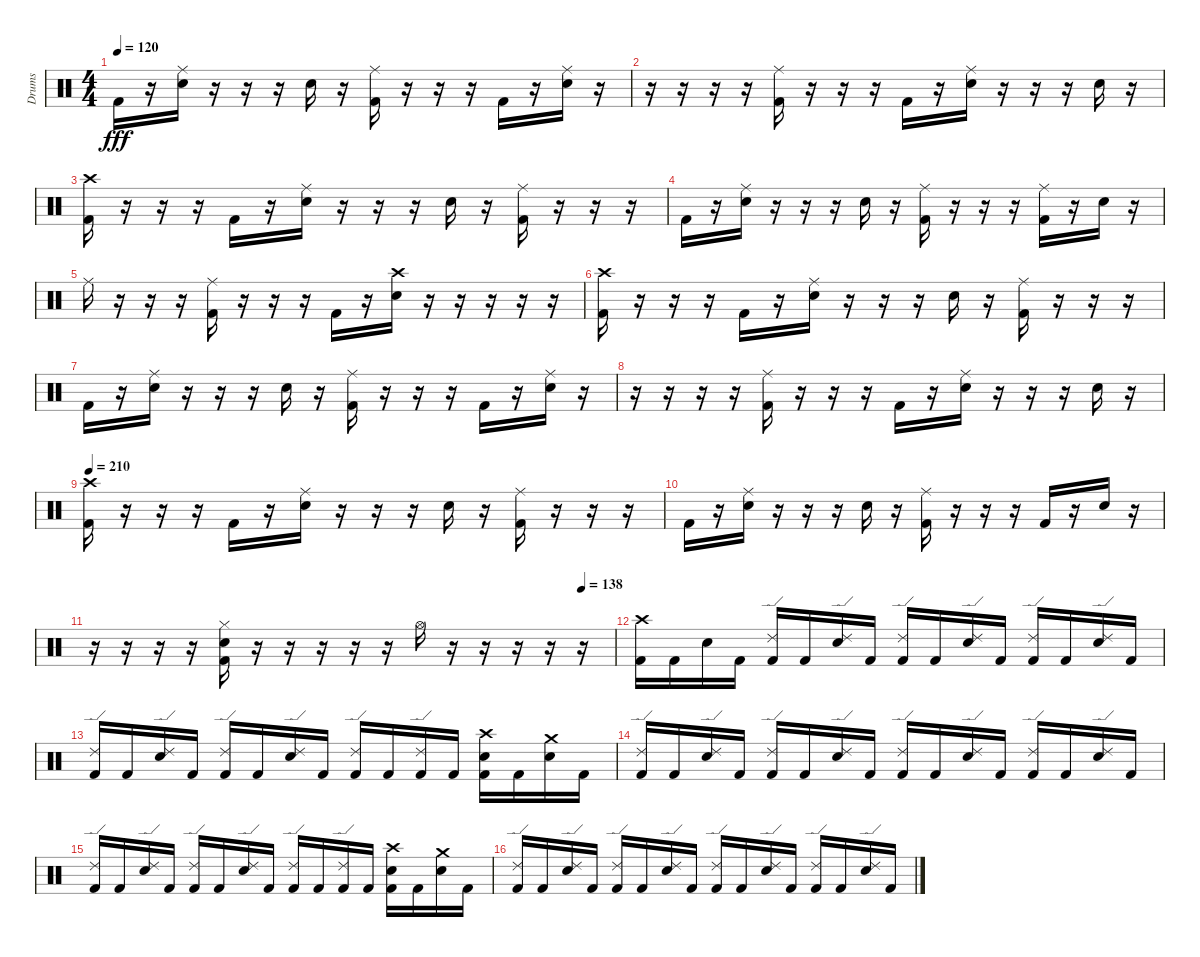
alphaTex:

\track ("Drums" "Drums") {instrument percussion}
\staff {score}
\articulation defaults
\ts (4 4)
\tempo 120
\clef neutral
\ks c "Kick (hit) 2".16{dy fff}
r.16 ("Ride (middle)" "Snare (hit) 2").16 r.16 r.16 r.16 "Snare (hit) 2".16 r.16 ("Ride (middle)" "Kick (hit) 2").16 r.16 r.16 r.16 "Kick (hit) 2".16 r.16 ("Ride (middle)" "Snare (hit) 2").16 r.16 |
r.16 r.16 r.16 r.16 ("Ride (middle)" "Kick (hit) 2").16 r.16 r.16 r.16 "Kick (hit) 2".16 r.16 ("Ride (middle)" "Snare (hit) 2").16 r.16 r.16 r.16 "Snare (hit) 2".16 r.16 |
("Crash high (hit)" "Kick (hit) 2").16 r.16 r.16 r.16 "Kick (hit) 2".16 r.16 ("Ride (middle)" "Snare (hit) 2").16 r.16 r.16 r.16 "Snare (hit) 2".16 r.16 ("Ride (middle)" "Kick (hit) 2").16 r.16 r.16 r.16 |
"Kick (hit) 2".16 r.16 ("Ride (middle)" "Snare (hit) 2").16 r.16 r.16 r.16 "Snare (hit) 2".16 r.16 ("Ride (middle)" "Kick (hit) 2").16 r.16 r.16 r.16 ("Ride (middle)" "Kick (hit) 2").16 r.16 "Snare (hit) 2".16 r.16 |
"Ride (middle)".16 r.16 r.16 r.16 ("Ride (middle)" "Kick (hit) 2").16 r.16 r.16 r.16 "Kick (hit) 2".16 r.16 ("Crash high (hit)" "Snare (hit) 2").16 r.16 r.16 r.16 r.16 r.16 |
("Crash high (hit)" "Kick (hit) 2").16 r.16 r.16 r.16 "Kick (hit) 2".16 r.16 ("Ride (middle)" "Snare (hit) 2").16 r.16 r.16 r.16 "Snare (hit) 2".16 r.16 ("Ride (middle)" "Kick (hit) 2").16 r.16 r.16 r.16 |
"Kick (hit) 2".16 r.16 ("Ride (middle)" "Snare (hit) 2").16 r.16 r.16 r.16 "Snare (hit) 2".16 r.16 ("Ride (middle)" "Kick (hit) 2").16 r.16 r.16 r.16 "Kick (hit) 2".16 r.16 ("Ride (middle)" "Snare (hit) 2").16 r.16 |
r.16 r.16 r.16 r.16 ("Ride (middle)" "Kick (hit) 2").16 r.16 r.16 r.16 "Kick (hit) 2".16 r.16 ("Ride (middle)" "Snare (hit) 2").16 r.16 r.16 r.16 "Snare (hit) 2".16 r.16 |
\tempo 210
("Crash high (hit)" "Kick (hit) 2").16 r.16 r.16 r.16 "Kick (hit) 2".16 r.16 ("Ride (middle)" "Snare (hit) 2").16 r.16 r.16 r.16 "Snare (hit) 2".16 r.16 ("Ride (middle)" "Kick (hit) 2").16 r.16 r.16 r.16 |
"Kick (hit) 2".16 r.16 ("Ride (middle)" "Snare (hit) 2").16 r.16 r.16 r.16 "Snare (hit) 2".16 r.16 ("Ride (middle)" "Kick (hit) 2").16 r.16 r.16 r.16 "Kick (hit) 2".16 r.16 "Snare (hit) 2".16 r.16 |
\tempo (138 0.9375)
r.16 r.16 r.16 r.16 ("Hi-Hat (closed)" "Snare (hit) 2" "Kick (hit) 2").16 r.16 r.16 r.16 r.16 r.16 "Hi-Hat (open)".16 r.16 r.16 r.16 r.16 r.16 |
("Crash high (hit)" "Kick (hit) 2").16 "Kick (hit) 2".16 "Snare (hit) 2".16 "Kick (hit) 2".16 ("Ride (edge) 2" "Kick (hit) 2").16 "Kick (hit) 2".16 ("Ride (edge) 2" "Snare (hit) 2").16 "Kick (hit) 2".16 ("Ride (edge) 2" "Kick (hit) 2").16 "Kick (hit) 2".16 ("Ride (edge) 2" "Snare (hit) 2").16 "Kick (hit) 2".16 ("Ride (edge) 2" "Kick (hit) 2").16 "Kick (hit) 2".16 ("Ride (edge) 2" "Snare (hit) 2").16 "Kick (hit) 2".16 |
("Ride (edge) 2" "Kick (hit) 2").16 "Kick (hit) 2".16 ("Ride (edge) 2" "Snare (hit) 2").16 "Kick (hit) 2".16 ("Ride (edge) 2" "Kick (hit) 2").16 "Kick (hit) 2".16 ("Ride (edge) 2" "Snare (hit) 2").16 "Kick (hit) 2".16 ("Ride (edge) 2" "Kick (hit) 2").16 "Kick (hit) 2".16 ("Ride (edge) 2" "Kick (hit) 2").16 "Kick (hit) 2".16 ("Crash high (hit)" "Snare (hit) 2" "Kick (hit) 2").16 "Kick (hit) 2".16 ("Crash medium (hit)" "Snare (hit) 2").16 "Kick (hit) 2".16 |
("Ride (edge) 2" "Kick (hit) 2").16 "Kick (hit) 2".16 ("Ride (edge) 2" "Snare (hit) 2").16 "Kick (hit) 2".16 ("Ride (edge) 2" "Kick (hit) 2").16 "Kick (hit) 2".16 ("Ride (edge) 2" "Snare (hit) 2").16 "Kick (hit) 2".16 ("Ride (edge) 2" "Kick (hit) 2").16 "Kick (hit) 2".16 ("Ride (edge) 2" "Snare (hit) 2").16 "Kick (hit) 2".16 ("Ride (edge) 2" "Kick (hit) 2").16 "Kick (hit) 2".16 ("Ride (edge) 2" "Snare (hit) 2").16 "Kick (hit) 2".16 |
("Ride (edge) 2" "Kick (hit) 2").16 "Kick (hit) 2".16 ("Ride (edge) 2" "Snare (hit) 2").16 "Kick (hit) 2".16 ("Ride (edge) 2" "Kick (hit) 2").16 "Kick (hit) 2".16 ("Ride (edge) 2" "Snare (hit) 2").16 "Kick (hit) 2".16 ("Ride (edge) 2" "Kick (hit) 2").16 "Kick (hit) 2".16 ("Ride (edge) 2" "Kick (hit) 2").16 "Kick (hit) 2".16 ("Crash high (hit)" "Snare (hit) 2" "Kick (hit) 2").16 "Kick (hit) 2".16 ("Crash medium (hit)" "Snare (hit) 2").16 "Kick (hit) 2".16 |
("Ride (edge) 2" "Kick (hit) 2").16 "Kick (hit) 2".16 ("Ride (edge) 2" "Snare (hit) 2").16 "Kick (hit) 2".16 ("Ride (edge) 2" "Kick (hit) 2").16 "Kick (hit) 2".16 ("Ride (edge) 2" "Snare (hit) 2").16 "Kick (hit) 2".16 ("Ride (edge) 2" "Kick (hit) 2").16 "Kick (hit) 2".16 ("Ride (edge) 2" "Snare (hit) 2").16 "Kick (hit) 2".16 ("Ride (edge) 2" "Kick (hit) 2").16 "Kick (hit) 2".16 ("Ride (edge) 2" "Snare (hit) 2").16 "Kick (hit) 2".16
